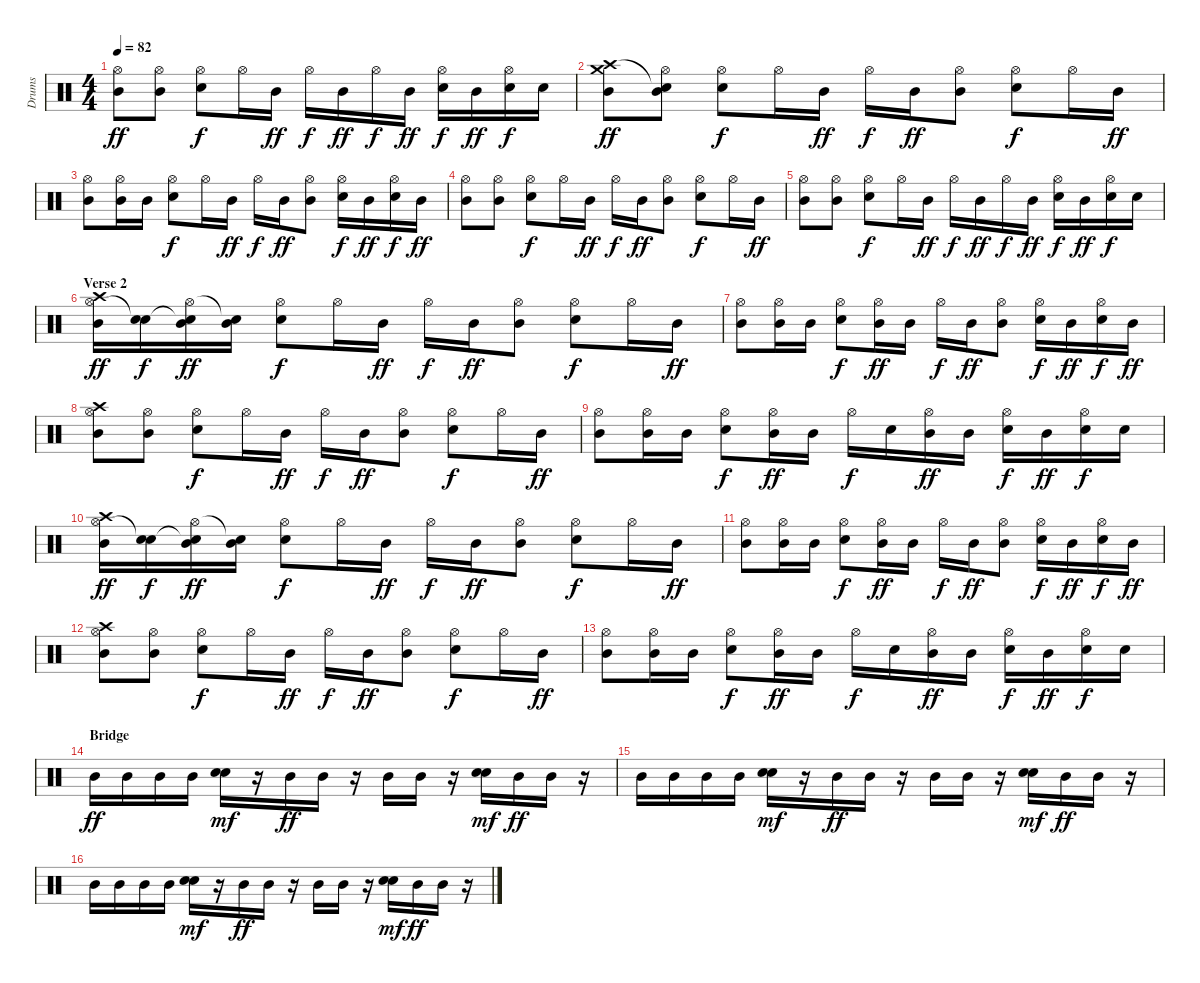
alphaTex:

\track ("Drums" "Drums") {instrument percussion}
\staff {score}
\articulation defaults
\ts (4 4)
\tempo 82
\clef neutral
\ks c
("Hi-Hat (open)" "Mid Tom (hit)").8{dy ff} ("Hi-Hat (open)" "Mid Tom (hit)").8 ("Hi-Hat (open)" "Electric Snare (hit)").8{dy f} "Hi-Hat (open)".16 "Mid Tom (hit)".16{dy ff} "Hi-Hat (open)".16{dy f} "Mid Tom (hit)".16{dy ff} "Hi-Hat (open)".16{dy f} "Mid Tom (hit)".16{dy ff} ("Hi-Hat (open)" "Electric Snare (hit)").16{dy f} "Mid Tom (hit)".16{dy ff} ("Hi-Hat (open)" "Electric Snare (hit)").16{dy f} "Electric Snare (hit)".16 |
("Crash medium (hit)" "Crash high (hit)" "Mid Tom (hit)").8{dy ff} ("Hi-Hat (open)" "Snare (hit)"{t} "Mid Tom (hit)").8 ("Hi-Hat (open)" "Electric Snare (hit)").8{dy f} "Hi-Hat (open)".16 "Mid Tom (hit)".16{dy ff} "Hi-Hat (open)".16{dy f} "Mid Tom (hit)".16{dy ff} ("Hi-Hat (open)" "Mid Tom (hit)").8 ("Hi-Hat (open)" "Electric Snare (hit)").8{dy f} "Hi-Hat (open)".16 "Mid Tom (hit)".16{dy ff} |
("Hi-Hat (open)" "Mid Tom (hit)").8 ("Hi-Hat (open)" "Mid Tom (hit)").16 "Mid Tom (hit)".16 ("Hi-Hat (open)" "Electric Snare (hit)").8{dy f} "Hi-Hat (open)".16 "Mid Tom (hit)".16{dy ff} "Hi-Hat (open)".16{dy f} "Mid Tom (hit)".16{dy ff} ("Hi-Hat (open)" "Mid Tom (hit)").8 ("Hi-Hat (open)" "Electric Snare (hit)").16{dy f} "Mid Tom (hit)".16{dy ff} ("Hi-Hat (open)" "Electric Snare (hit)").16{dy f} "Mid Tom (hit)".16{dy ff} |
("Hi-Hat (open)" "Mid Tom (hit)").8 ("Hi-Hat (open)" "Mid Tom (hit)").8 ("Hi-Hat (open)" "Electric Snare (hit)").8{dy f} "Hi-Hat (open)".16 "Mid Tom (hit)".16{dy ff} "Hi-Hat (open)".16{dy f} "Mid Tom (hit)".16{dy ff} ("Hi-Hat (open)" "Mid Tom (hit)").8 ("Hi-Hat (open)" "Electric Snare (hit)").8{dy f} "Hi-Hat (open)".16 "Mid Tom (hit)".16{dy ff} |
("Hi-Hat (open)" "Mid Tom (hit)").8 ("Hi-Hat (open)" "Mid Tom (hit)").8 ("Hi-Hat (open)" "Electric Snare (hit)").8{dy f} "Hi-Hat (open)".16 "Mid Tom (hit)".16{dy ff} "Hi-Hat (open)".16{dy f} "Mid Tom (hit)".16{dy ff} "Hi-Hat (open)".16{dy f} "Mid Tom (hit)".16{dy ff} ("Hi-Hat (open)" "Electric Snare (hit)").16{dy f} "Mid Tom (hit)".16{dy ff} ("Hi-Hat (open)" "Electric Snare (hit)").16{dy f} "Electric Snare (hit)".16 |
\section ("" "Verse 2")
("Hi-Hat (open)" "Crash high (hit)" "Mid Tom (hit)").16{dy ff} ("Snare (hit)"{t} "Electric Snare (hit)").16{dy f} ("Hi-Hat (open)" "Snare (hit)"{t} "Mid Tom (hit)").16{dy ff} ("Snare (hit)"{t} "Mid Tom (hit)").16 ("Hi-Hat (open)" "Electric Snare (hit)").8{dy f} "Hi-Hat (open)".16 "Mid Tom (hit)".16{dy ff} "Hi-Hat (open)".16{dy f} "Mid Tom (hit)".16{dy ff} ("Hi-Hat (open)" "Mid Tom (hit)").8 ("Hi-Hat (open)" "Electric Snare (hit)").8{dy f} "Hi-Hat (open)".16 "Mid Tom (hit)".16{dy ff} |
("Hi-Hat (open)" "Mid Tom (hit)").8 ("Hi-Hat (open)" "Mid Tom (hit)").16 "Mid Tom (hit)".16 ("Hi-Hat (open)" "Electric Snare (hit)").8{dy f} ("Hi-Hat (open)" "Mid Tom (hit)").16{dy ff} "Mid Tom (hit)".16 "Hi-Hat (open)".16{dy f} "Mid Tom (hit)".16{dy ff} ("Hi-Hat (open)" "Mid Tom (hit)").8 ("Hi-Hat (open)" "Electric Snare (hit)").16{dy f} "Mid Tom (hit)".16{dy ff} ("Hi-Hat (open)" "Electric Snare (hit)").16{dy f} "Mid Tom (hit)".16{dy ff} |
("Hi-Hat (open)" "Crash high (hit)" "Mid Tom (hit)").8 ("Hi-Hat (open)" "Mid Tom (hit)").8 ("Hi-Hat (open)" "Electric Snare (hit)").8{dy f} "Hi-Hat (open)".16 "Mid Tom (hit)".16{dy ff} "Hi-Hat (open)".16{dy f} "Mid Tom (hit)".16{dy ff} ("Hi-Hat (open)" "Mid Tom (hit)").8 ("Hi-Hat (open)" "Electric Snare (hit)").8{dy f} "Hi-Hat (open)".16 "Mid Tom (hit)".16{dy ff} |
("Hi-Hat (open)" "Mid Tom (hit)").8 ("Hi-Hat (open)" "Mid Tom (hit)").16 "Mid Tom (hit)".16 ("Hi-Hat (open)" "Electric Snare (hit)").8{dy f} ("Hi-Hat (open)" "Mid Tom (hit)").16{dy ff} "Mid Tom (hit)".16 "Hi-Hat (open)".16{dy f} "Electric Snare (hit)".16 ("Hi-Hat (open)" "Mid Tom (hit)").16{dy ff} "Mid Tom (hit)".16 ("Hi-Hat (open)" "Electric Snare (hit)").16{dy f} "Mid Tom (hit)".16{dy ff} ("Hi-Hat (open)" "Electric Snare (hit)").16{dy f} "Electric Snare (hit)".16 |
("Hi-Hat (open)" "Crash high (hit)" "Mid Tom (hit)").16{dy ff} ("Snare (hit)"{t} "Electric Snare (hit)").16{dy f} ("Hi-Hat (open)" "Snare (hit)"{t} "Mid Tom (hit)").16{dy ff} ("Snare (hit)"{t} "Mid Tom (hit)").16 ("Hi-Hat (open)" "Electric Snare (hit)").8{dy f} "Hi-Hat (open)".16 "Mid Tom (hit)".16{dy ff} "Hi-Hat (open)".16{dy f} "Mid Tom (hit)".16{dy ff} ("Hi-Hat (open)" "Mid Tom (hit)").8 ("Hi-Hat (open)" "Electric Snare (hit)").8{dy f} "Hi-Hat (open)".16 "Mid Tom (hit)".16{dy ff} |
("Hi-Hat (open)" "Mid Tom (hit)").8 ("Hi-Hat (open)" "Mid Tom (hit)").16 "Mid Tom (hit)".16 ("Hi-Hat (open)" "Electric Snare (hit)").8{dy f} ("Hi-Hat (open)" "Mid Tom (hit)").16{dy ff} "Mid Tom (hit)".16 "Hi-Hat (open)".16{dy f} "Mid Tom (hit)".16{dy ff} ("Hi-Hat (open)" "Mid Tom (hit)").8 ("Hi-Hat (open)" "Electric Snare (hit)").16{dy f} "Mid Tom (hit)".16{dy ff} ("Hi-Hat (open)" "Electric Snare (hit)").16{dy f} "Mid Tom (hit)".16{dy ff} |
("Hi-Hat (open)" "Crash high (hit)" "Mid Tom (hit)").8 ("Hi-Hat (open)" "Mid Tom (hit)").8 ("Hi-Hat (open)" "Electric Snare (hit)").8{dy f} "Hi-Hat (open)".16 "Mid Tom (hit)".16{dy ff} "Hi-Hat (open)".16{dy f} "Mid Tom (hit)".16{dy ff} ("Hi-Hat (open)" "Mid Tom (hit)").8 ("Hi-Hat (open)" "Electric Snare (hit)").8{dy f} "Hi-Hat (open)".16 "Mid Tom (hit)".16{dy ff} |
("Hi-Hat (open)" "Mid Tom (hit)").8 ("Hi-Hat (open)" "Mid Tom (hit)").16 "Mid Tom (hit)".16 ("Hi-Hat (open)" "Electric Snare (hit)").8{dy f} ("Hi-Hat (open)" "Mid Tom (hit)").16{dy ff} "Mid Tom (hit)".16 "Hi-Hat (open)".16{dy f} "Electric Snare (hit)".16 ("Hi-Hat (open)" "Mid Tom (hit)").16{dy ff} "Mid Tom (hit)".16 ("Hi-Hat (open)" "Electric Snare (hit)").16{dy f} "Mid Tom (hit)".16{dy ff} ("Hi-Hat (open)" "Electric Snare (hit)").16{dy f} "Electric Snare (hit)".16 |
\section ("" "Bridge")
"Mid Tom (hit)".16{dy ff} "Mid Tom (hit)".16 "Mid Tom (hit)".16 "Mid Tom (hit)".16 ("Electric Snare (hit)" "Electric Snare (hit)").16{bd 480 dy mf} r.16 "Mid Tom (hit)".16{dy ff} "Mid Tom (hit)".16 r.16 "Mid Tom (hit)".16 "Mid Tom (hit)".16 r.16 ("Electric Snare (hit)" "Electric Snare (hit)").16{bd 240 dy mf} "Mid Tom (hit)".16{dy ff} "Mid Tom (hit)".16 r.16 |
"Mid Tom (hit)".16 "Mid Tom (hit)".16 "Mid Tom (hit)".16 "Mid Tom (hit)".16 ("Electric Snare (hit)" "Electric Snare (hit)").16{bd 480 dy mf} r.16 "Mid Tom (hit)".16{dy ff} "Mid Tom (hit)".16 r.16 "Mid Tom (hit)".16 "Mid Tom (hit)".16 r.16 ("Electric Snare (hit)" "Electric Snare (hit)").16{bd 240 dy mf} "Mid Tom (hit)".16{dy ff} "Mid Tom (hit)".16 r.16 |
"Mid Tom (hit)".16 "Mid Tom (hit)".16 "Mid Tom (hit)".16 "Mid Tom (hit)".16 ("Electric Snare (hit)" "Electric Snare (hit)").16{bd 480 dy mf} r.16 "Mid Tom (hit)".16{dy ff} "Mid Tom (hit)".16 r.16 "Mid Tom (hit)".16 "Mid Tom (hit)".16 r.16 ("Electric Snare (hit)" "Electric Snare (hit)").16{bd 240 dy mf} "Mid Tom (hit)".16{dy ff} "Mid Tom (hit)".16 r.16
